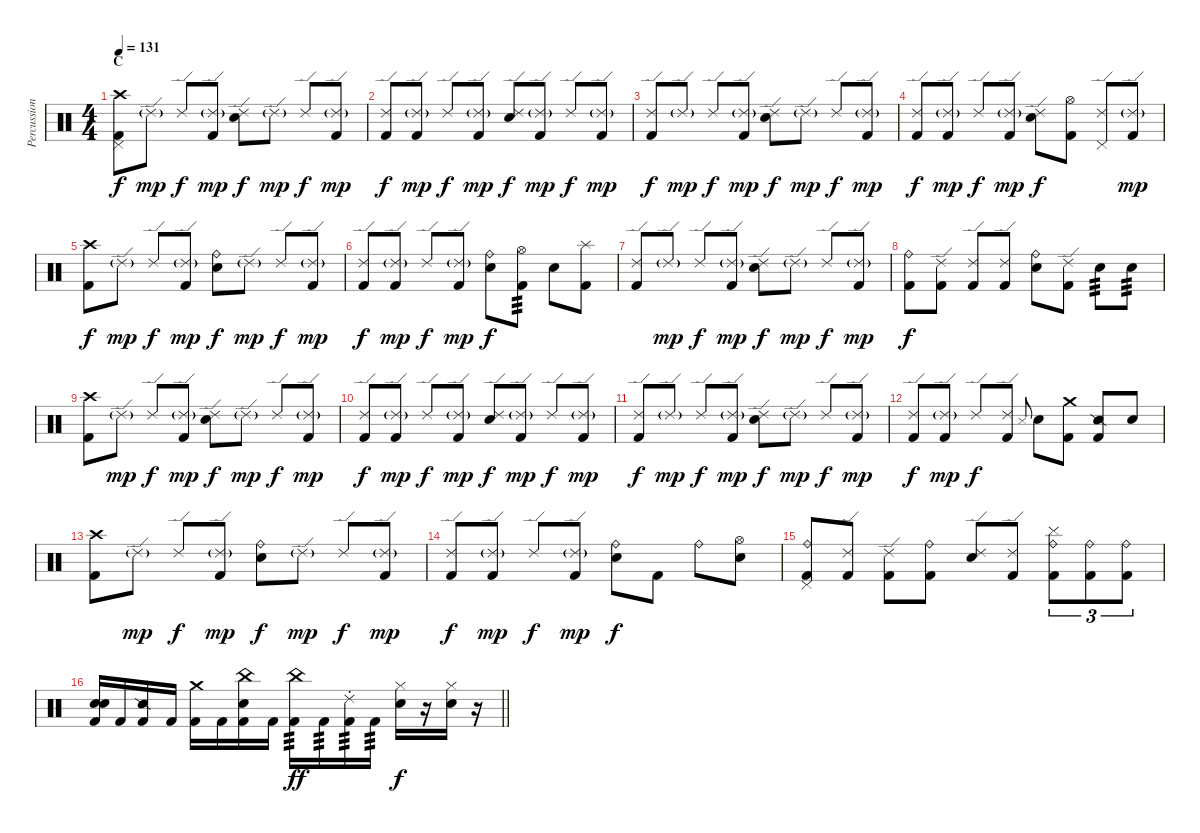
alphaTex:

\track ("Percussion" "Percussion") {instrument percussion}
\staff {score}
\articulation defaults
\ts (4 4)
\section ("" "C")
\tempo 131
\clef neutral
\ks c
("Crash high (hit)" "Pedal Hi-Hat (hit)" "Kick (hit) 2").8{dy f} "Ride (edge) 2"{g}.8{dy mp} "Ride (edge) 2".8{dy f} ("Ride (edge) 2"{g} "Kick (hit) 2").8{dy mp} ("Ride (edge) 2" "Snare (hit) 2").8{dy f} "Ride (edge) 2"{g}.8{dy mp} "Ride (edge) 2".8{dy f} ("Ride (edge) 2"{g} "Kick (hit) 2").8{dy mp} |
("Ride (edge) 2" "Kick (hit) 2").8{dy f} ("Ride (edge) 2"{g} "Kick (hit) 2").8{dy mp} "Ride (edge) 2".8{dy f} ("Ride (edge) 2"{g} "Kick (hit) 2").8{dy mp} ("Ride (edge) 2" "Snare (hit) 2").8{dy f} ("Ride (edge) 2"{g} "Kick (hit) 2").8{dy mp} "Ride (edge) 2".8{dy f} ("Ride (edge) 2"{g} "Kick (hit) 2").8{dy mp} |
("Ride (edge) 2" "Kick (hit) 2").8{dy f} "Ride (edge) 2"{g}.8{dy mp} "Ride (edge) 2".8{dy f} ("Ride (edge) 2"{g} "Kick (hit) 2").8{dy mp} ("Ride (edge) 2" "Snare (hit) 2").8{dy f} "Ride (edge) 2"{g}.8{dy mp} "Ride (edge) 2".8{dy f} ("Ride (edge) 2"{g} "Kick (hit) 2").8{dy mp} |
("Ride (edge) 2" "Kick (hit) 2").8{dy f} ("Ride (edge) 2"{g} "Kick (hit) 2").8{dy mp} "Ride (edge) 2".8{dy f} ("Ride (edge) 2"{g} "Kick (hit) 2").8{dy mp} ("Ride (edge) 2" "Snare (hit) 2").8{dy f} ("Hi-Hat (open)" "Kick (hit) 2").8 ("Ride (edge) 2" "Pedal Hi-Hat (hit)").8 ("Ride (edge) 2"{g} "Kick (hit) 2").8{dy mp} |
("Crash high (hit)" "Kick (hit) 2").8{dy f} "Ride (edge) 2"{g}.8{dy mp} "Ride (edge) 2".8{dy f} ("Ride (edge) 2"{g} "Kick (hit) 2").8{dy mp} ("Ride (bell)" "Snare (hit) 2").8{dy f} "Ride (edge) 2"{g}.8{dy mp} "Ride (edge) 2".8{dy f} ("Ride (edge) 2"{g} "Kick (hit) 2").8{dy mp} |
("Ride (edge) 2" "Kick (hit) 2").8{dy f} ("Ride (edge) 2"{g} "Kick (hit) 2").8{dy mp} "Ride (edge) 2".8{dy f} ("Ride (edge) 2"{g} "Kick (hit) 2").8{dy mp} ("Ride (bell)" "Snare (hit) 2").8{dy f} ("Hi-Hat (open)" "Kick (hit) 2").8{tp 3} "Snare (hit)".8 ("Splash (hit)" "Kick (hit) 2").8 |
("Ride (edge) 2" "Kick (hit) 2").8 "Ride (edge) 2"{g}.8{dy mp} "Ride (edge) 2".8{dy f} ("Ride (edge) 2"{g} "Kick (hit) 2").8{dy mp} ("Ride (edge) 2" "Snare (hit) 2").8{dy f} "Ride (edge) 2"{g}.8{dy mp} "Ride (edge) 2".8{dy f} ("Ride (edge) 2"{g} "Kick (hit) 2").8{dy mp} |
("Ride (bell)" "Kick (hit) 2").8{dy f} ("Ride (edge) 2" "Kick (hit) 2").8 ("Ride (edge) 2" "Kick (hit) 2").8 ("Ride (edge) 2" "Kick (hit) 2").8 ("Ride (bell)" "Snare (hit) 2").8 ("Ride (edge) 2" "Kick (hit) 2").8 "Snare (hit) 2".8{tp 3} "Snare (hit) 2".8{tp 3} |
("Crash high (hit)" "Kick (hit) 2").8 "Ride (edge) 2"{g}.8{dy mp} "Ride (edge) 2".8{dy f} ("Ride (edge) 2"{g} "Kick (hit) 2").8{dy mp} ("Ride (edge) 2" "Snare (hit) 2").8{dy f} "Ride (edge) 2"{g}.8{dy mp} "Ride (edge) 2".8{dy f} ("Ride (edge) 2"{g} "Kick (hit) 2").8{dy mp} |
("Ride (edge) 2" "Kick (hit) 2").8{dy f} ("Ride (edge) 2"{g} "Kick (hit) 2").8{dy mp} "Ride (edge) 2".8{dy f} ("Ride (edge) 2"{g} "Kick (hit) 2").8{dy mp} ("Ride (edge) 2" "Snare (hit) 2").8{dy f} ("Ride (edge) 2"{g} "Kick (hit) 2").8{dy mp} "Ride (edge) 2".8{dy f} ("Ride (edge) 2"{g} "Kick (hit) 2").8{dy mp} |
("Ride (edge) 2" "Kick (hit) 2").8{dy f} "Ride (edge) 2"{g}.8{dy mp} "Ride (edge) 2".8{dy f} ("Ride (edge) 2"{g} "Kick (hit) 2").8{dy mp} ("Ride (edge) 2" "Snare (hit) 2").8{dy f} "Ride (edge) 2"{g}.8{dy mp} "Ride (edge) 2".8{dy f} ("Ride (edge) 2"{g} "Kick (hit) 2").8{dy mp} |
("Ride (edge) 2" "Kick (hit) 2").8{dy f} ("Ride (edge) 2"{g} "Kick (hit) 2").8{dy mp} "Ride (edge) 2".8{dy f} ("Ride (edge) 2" "Kick (hit) 2").8 "Metronome (hit)".8{gr onbeat} "Snare (hit) 2".8 ("Crash medium (hit)" "Kick (hit) 2").8 ("Snare (side stick) 2" "Kick (hit) 2").8 "Snare (hit) 2".8 |
("Crash high (hit)" "Kick (hit) 2").8 "Ride (edge) 2"{g}.8{dy mp} "Ride (edge) 2".8{dy f} ("Ride (edge) 2"{g} "Kick (hit) 2").8{dy mp} ("Ride (bell)" "Snare (hit) 2").8{dy f} "Ride (edge) 2"{g}.8{dy mp} "Ride (edge) 2".8{dy f} ("Ride (edge) 2"{g} "Kick (hit) 2").8{dy mp} |
("Ride (edge) 2" "Kick (hit) 2").8{dy f} ("Ride (edge) 2"{g} "Kick (hit) 2").8{dy mp} "Ride (edge) 2".8{dy f} ("Ride (edge) 2"{g} "Kick (hit) 2").8{dy mp} ("Ride (bell)" "Snare (hit) 2").8{dy f} "Kick (hit) 2".8 "Ride (bell)".8 ("Hi-Hat (open)" "Snare (hit) 2").8 |
("Ride (bell)" "Pedal Hi-Hat (hit)" "Kick (hit) 2").8 ("Ride (edge) 2" "Kick (hit) 2").8 ("Ride (edge) 2" "Kick (hit) 2").8 ("Ride (bell)" "Kick (hit) 2").8 ("Ride (edge) 2" "Snare (hit) 2").8 ("Ride (edge) 2" "Kick (hit) 2").8 ("Ride (bell)" "Cymbal (hit)" "Kick (hit) 2").8{tu (3 2)} ("Ride (bell)" "Kick (hit) 2").8{tu (3 2)} ("Ride (bell)" "Kick (hit) 2").8{tu (3 2)} |
\barLineRight lightlight
("Snare (hit)" "Snare (hit) 2" "Kick (hit) 2").16 "Kick (hit) 2".16 ("Snare (side stick) 2" "Kick (hit) 2").16 "Kick (hit) 2".16 ("Crash medium (hit)" "Kick (hit) 2").16 "Kick (hit) 2".16 ("China (hit)" "Snare (hit) 2" "Kick (hit) 2").16 "Kick (hit) 2".16 ("China (hit)" "Kick (hit) 2").16{tp 3 dy ff} "Kick (hit) 2".16{tp 3} ("Ride (choke) 2" "Kick (hit) 2").16{tp 3} "Kick (hit) 2".16{tp 3} ("Hi-Hat (closed)" "Snare (hit) 2").16{dy f} r.16 ("Hi-Hat (closed)" "Snare (hit) 2").16 r.16
